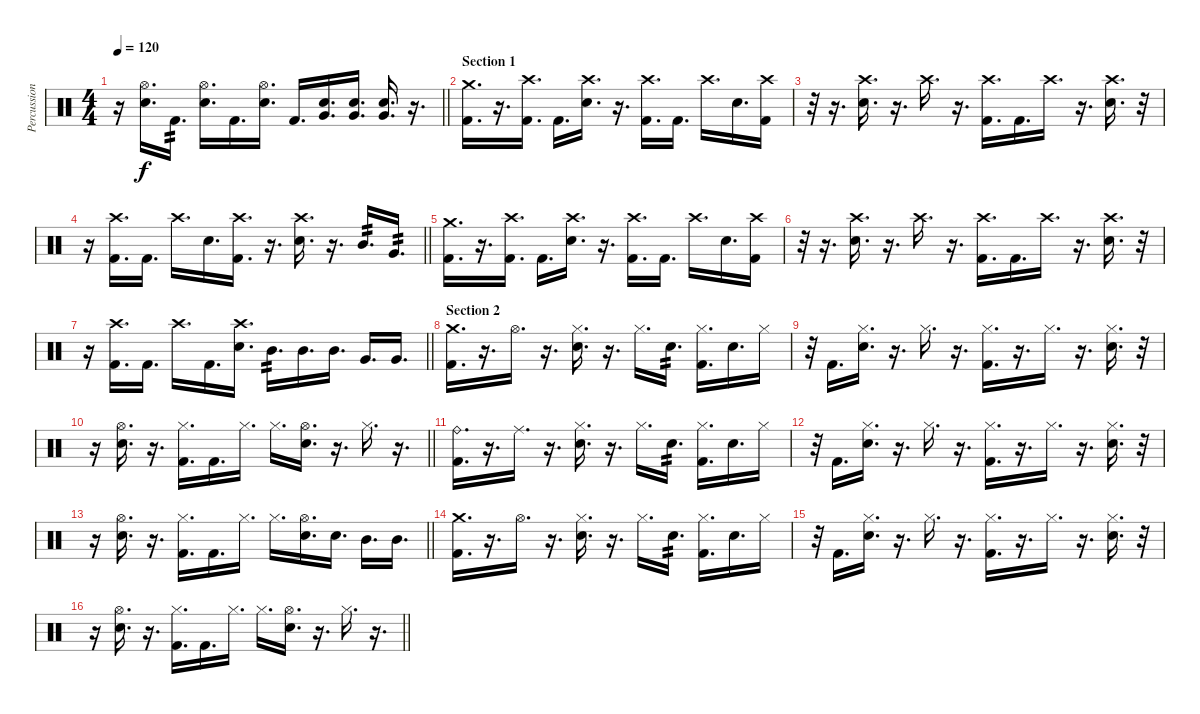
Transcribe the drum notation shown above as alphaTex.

\track ("Percussion" "Percussion") {instrument percussion}
\staff
\articulation defaults
\ts (4 4)
\tempo 120
\clef neutral
\barLineRight lightlight
\ks c
r.16{dy f} ("Electric Snare (hit)" "Hi-Hat (open)").16{d} "Kick (hit) 2".16{d tp 2} ("Electric Snare (hit)" "Hi-Hat (open)").16{d} "Kick (hit) 2".16{d} ("Electric Snare (hit)" "Hi-Hat (open)").16{d} "Kick (hit) 2".16{d} ("Very Low Tom (hit)" "Electric Snare (hit)").16{d} ("Very Low Tom (hit)" "Electric Snare (hit)").16{d} ("Very Low Tom (hit)" "Electric Snare (hit)").16{d} r.16{d} |
\section ("" "Section 1")
("Crash medium (hit)" "Kick (hit) 2").16{d} r.16{d} ("Crash high (hit)" "Kick (hit) 2").16{d} "Kick (hit) 2".16{d} ("Crash high (hit)" "Electric Snare (hit)").16{d} r.16{d} ("Crash high (hit)" "Kick (hit) 2").16{d} "Kick (hit) 2".16{d} "Crash high (hit)".16{d} "Electric Snare (hit)".16{d} ("Crash high (hit)" "Kick (hit) 2").16 |
r.32 r.16{d} ("Crash high (hit)" "Electric Snare (hit)").16{d} r.16{d} "Crash high (hit)".16{d} r.16{d} ("Crash high (hit)" "Kick (hit) 2").16{d} "Kick (hit) 2".16{d} "Crash high (hit)".16{d} r.16{d} ("Crash high (hit)" "Electric Snare (hit)").16{d} r.32 |
\barLineRight lightlight
r.16 ("Crash high (hit)" "Kick (hit) 2").16{d} "Kick (hit) 2".16{d} "Crash high (hit)".16{d} "Electric Snare (hit)".16{d} ("Crash high (hit)" "Kick (hit) 2").16{d} r.16{d} ("Crash high (hit)" "Electric Snare (hit)").16{d} r.16{d} "Mid Tom (hit)".16{d tp 2} "Very Low Tom (hit)".16{d tp 2} |
("Crash medium (hit)" "Kick (hit) 2").16{d} r.16{d} ("Crash high (hit)" "Kick (hit) 2").16{d} "Kick (hit) 2".16{d} ("Crash high (hit)" "Electric Snare (hit)").16{d} r.16{d} ("Crash high (hit)" "Kick (hit) 2").16{d} "Kick (hit) 2".16{d} "Crash high (hit)".16{d} "Electric Snare (hit)".16{d} ("Crash high (hit)" "Kick (hit) 2").16 |
r.32 r.16{d} ("Crash high (hit)" "Electric Snare (hit)").16{d} r.16{d} "Crash high (hit)".16{d} r.16{d} ("Crash high (hit)" "Kick (hit) 2").16{d} "Kick (hit) 2".16{d} "Crash high (hit)".16{d} r.16{d} ("Crash high (hit)" "Electric Snare (hit)").16{d} r.32 |
\barLineRight lightlight
r.16 ("Crash high (hit)" "Kick (hit) 2").16{d} "Kick (hit) 2".16{d} "Crash high (hit)".16{d} "Kick (hit) 2".16{d} ("Crash high (hit)" "Electric Snare (hit)").16{d} "Mid Tom (hit)".16{d tp 2} "Mid Tom (hit)".16{d} "Mid Tom (hit)".16{d} "Very Low Tom (hit)".16{d} "Very Low Tom (hit)".16{d} |
\section ("" "Section 2")
("Crash medium (hit)" "Kick (hit) 2").16{d} r.16{d} "Hi-Hat (open)".16{d} r.16{d} ("Hi-Hat (closed)" "Electric Snare (hit)").16{d} r.16{d} "Hi-Hat (closed)".16{d} "Electric Snare (hit)".16{d tp 2} ("Hi-Hat (closed)" "Kick (hit) 2").16{d} "Electric Snare (hit)".16{d} "Hi-Hat (closed)".16 |
r.32 "Kick (hit) 2".16{d} ("Hi-Hat (closed)" "Electric Snare (hit)").16{d} r.16{d} "Hi-Hat (closed)".16{d} r.16{d} ("Hi-Hat (closed)" "Kick (hit) 2").16{d} r.16{d} "Hi-Hat (closed)".16{d} r.16{d} ("Hi-Hat (closed)" "Electric Snare (hit)").16{d} r.32 |
\barLineRight lightlight
r.16 ("Hi-Hat (open)" "Electric Snare (hit)").16{d} r.16{d} ("Hi-Hat (closed)" "Kick (hit) 2").16{d} "Kick (hit) 2".16{d} "Hi-Hat (closed)".16{d} "Hi-Hat (closed)".16{d} ("Hi-Hat (open)" "Electric Snare (hit)").16{d} r.16{d} "Hi-Hat (closed)".16{d} r.16{d} |
("Ride (bell)" "Kick (hit) 2").16{d} r.16{d} "Ride (middle)".16{d} r.16{d} ("Hi-Hat (closed)" "Electric Snare (hit)").16{d} r.16{d} "Hi-Hat (closed)".16{d} "Electric Snare (hit)".16{d tp 2} ("Hi-Hat (closed)" "Kick (hit) 2").16{d} "Electric Snare (hit)".16{d} "Hi-Hat (closed)".16 |
r.32 "Kick (hit) 2".16{d} ("Hi-Hat (closed)" "Electric Snare (hit)").16{d} r.16{d} "Hi-Hat (closed)".16{d} r.16{d} ("Hi-Hat (closed)" "Kick (hit) 2").16{d} r.16{d} "Hi-Hat (closed)".16{d} r.16{d} ("Hi-Hat (closed)" "Electric Snare (hit)").16{d} r.32 |
\barLineRight lightlight
r.16 ("Hi-Hat (open)" "Electric Snare (hit)").16{d} r.16{d} ("Hi-Hat (closed)" "Kick (hit) 2").16{d} "Kick (hit) 2".16{d} "Hi-Hat (closed)".16{d} "Hi-Hat (closed)".16{d} ("Hi-Hat (open)" "Electric Snare (hit)").16{d} "Electric Snare (hit)".16{d} "Mid Tom (hit)".16{d} "Mid Tom (hit)".16{d} |
("Crash medium (hit)" "Kick (hit) 2").16{d} r.16{d} "Hi-Hat (open)".16{d} r.16{d} ("Hi-Hat (closed)" "Electric Snare (hit)").16{d} r.16{d} "Hi-Hat (closed)".16{d} "Electric Snare (hit)".16{d tp 2} ("Hi-Hat (closed)" "Kick (hit) 2").16{d} "Electric Snare (hit)".16{d} "Hi-Hat (closed)".16 |
r.32 "Kick (hit) 2".16{d} ("Hi-Hat (closed)" "Electric Snare (hit)").16{d} r.16{d} "Hi-Hat (closed)".16{d} r.16{d} ("Hi-Hat (closed)" "Kick (hit) 2").16{d} r.16{d} "Hi-Hat (closed)".16{d} r.16{d} ("Hi-Hat (closed)" "Electric Snare (hit)").16{d} r.32 |
\barLineRight lightlight
r.16 ("Hi-Hat (open)" "Electric Snare (hit)").16{d} r.16{d} ("Hi-Hat (closed)" "Kick (hit) 2").16{d} "Kick (hit) 2".16{d} "Hi-Hat (closed)".16{d} "Hi-Hat (closed)".16{d} ("Hi-Hat (open)" "Electric Snare (hit)").16{d} r.16{d} "Hi-Hat (closed)".16{d} r.16{d}
